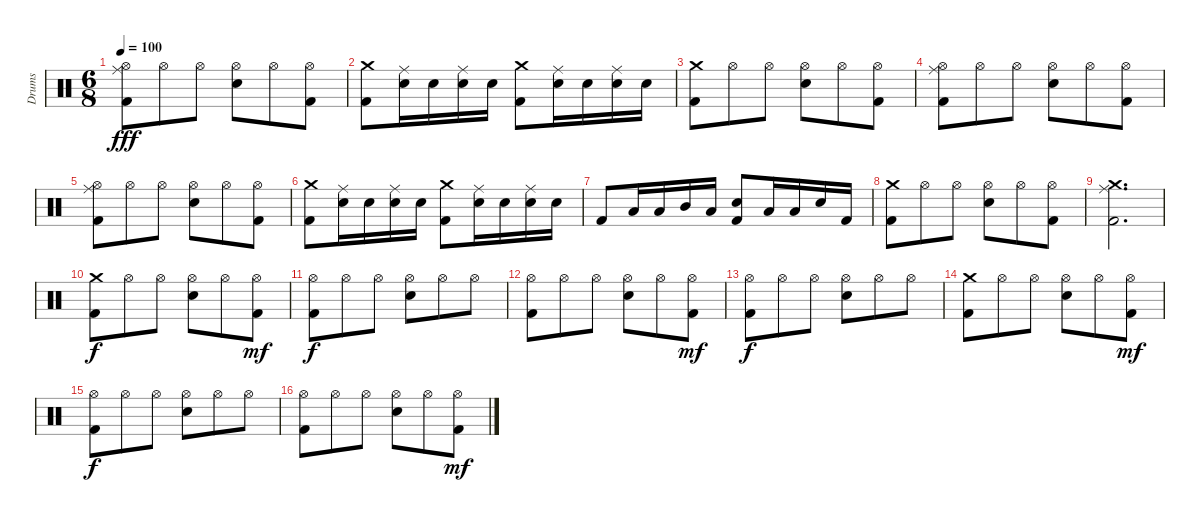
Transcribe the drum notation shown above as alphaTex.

\track ("Drums" "Drums") {instrument percussion}
\staff {score}
\articulation defaults
\ts (6 8)
\tempo 100
\clef neutral
\ks c
("Ride (middle)" "Hi-Hat (open)" "Kick (hit) 2").8{dy fff} "Hi-Hat (open)".8 "Hi-Hat (open)".8 ("Hi-Hat (open)" "Electric Snare (hit)").8 "Hi-Hat (open)".8 ("Hi-Hat (open)" "Kick (hit) 2").8 |
("Crash medium (hit)" "Kick (hit) 2").8 ("Ride (middle)" "Electric Snare (hit)").16 "Electric Snare (hit)".16 ("Ride (middle)" "Electric Snare (hit)").16 "Electric Snare (hit)".16 ("Crash medium (hit)" "Kick (hit) 2").8 ("Ride (middle)" "Electric Snare (hit)").16 "Electric Snare (hit)".16 ("Ride (middle)" "Electric Snare (hit)").16 "Electric Snare (hit)".16 |
("Crash medium (hit)" "Kick (hit) 2").8 "Hi-Hat (open)".8 "Hi-Hat (open)".8 ("Hi-Hat (open)" "Electric Snare (hit)").8 "Hi-Hat (open)".8 ("Hi-Hat (open)" "Kick (hit) 2").8 |
("Ride (middle)" "Hi-Hat (open)" "Kick (hit) 2").8 "Hi-Hat (open)".8 "Hi-Hat (open)".8 ("Hi-Hat (open)" "Electric Snare (hit)").8 "Hi-Hat (open)".8 ("Hi-Hat (open)" "Kick (hit) 2").8 |
("Ride (middle)" "Hi-Hat (open)" "Kick (hit) 2").8 "Hi-Hat (open)".8 "Hi-Hat (open)".8 ("Hi-Hat (open)" "Electric Snare (hit)").8 "Hi-Hat (open)".8 ("Hi-Hat (open)" "Kick (hit) 2").8 |
("Crash medium (hit)" "Kick (hit) 2").8 ("Ride (middle)" "Electric Snare (hit)").16 "Electric Snare (hit)".16 ("Ride (middle)" "Electric Snare (hit)").16 "Electric Snare (hit)".16 ("Crash medium (hit)" "Kick (hit) 2").8 ("Ride (middle)" "Electric Snare (hit)").16 "Electric Snare (hit)".16 ("Ride (middle)" "Electric Snare (hit)").16 "Electric Snare (hit)".16 |
"Kick (hit) 2".8 "Low Floor Tom (hit)".16 "Low Tom (hit)".16 "Mid Tom (hit)".16 "Low Tom (hit)".16 ("Electric Snare (hit)" "Kick (hit) 2").8 "Low Floor Tom (hit)".16 "Low Tom (hit)".16 "Electric Snare (hit)".16 "Kick (hit) 2".16 |
("Crash medium (hit)" "Kick (hit) 2").8 "Hi-Hat (open)".8 "Hi-Hat (open)".8 ("Hi-Hat (open)" "Electric Snare (hit)").8 "Hi-Hat (open)".8 ("Hi-Hat (open)" "Kick (hit) 2").8 |
("Crash medium (hit)" "Ride (middle)" "Kick (hit) 2").2{d} |
("Crash medium (hit)" "Kick (hit) 2").8{dy f} "Hi-Hat (open)".8 "Hi-Hat (open)".8 ("Hi-Hat (open)" "Electric Snare (hit)").8 "Hi-Hat (open)".8 ("Hi-Hat (open)" "Kick (hit) 2").8{dy mf} |
("Hi-Hat (open)" "Kick (hit) 2").8{dy f} "Hi-Hat (open)".8 "Hi-Hat (open)".8 ("Hi-Hat (open)" "Electric Snare (hit)").8 "Hi-Hat (open)".8 "Hi-Hat (open)".8 |
("Hi-Hat (open)" "Kick (hit) 2").8 "Hi-Hat (open)".8 "Hi-Hat (open)".8 ("Hi-Hat (open)" "Electric Snare (hit)").8 "Hi-Hat (open)".8 ("Hi-Hat (open)" "Kick (hit) 2").8{dy mf} |
("Hi-Hat (open)" "Kick (hit) 2").8{dy f} "Hi-Hat (open)".8 "Hi-Hat (open)".8 ("Hi-Hat (open)" "Electric Snare (hit)").8 "Hi-Hat (open)".8 "Hi-Hat (open)".8 |
("Crash medium (hit)" "Kick (hit) 2").8 "Hi-Hat (open)".8 "Hi-Hat (open)".8 ("Hi-Hat (open)" "Electric Snare (hit)").8 "Hi-Hat (open)".8 ("Hi-Hat (open)" "Kick (hit) 2").8{dy mf} |
("Hi-Hat (open)" "Kick (hit) 2").8{dy f} "Hi-Hat (open)".8 "Hi-Hat (open)".8 ("Hi-Hat (open)" "Electric Snare (hit)").8 "Hi-Hat (open)".8 "Hi-Hat (open)".8 |
("Hi-Hat (open)" "Kick (hit) 2").8 "Hi-Hat (open)".8 "Hi-Hat (open)".8 ("Hi-Hat (open)" "Electric Snare (hit)").8 "Hi-Hat (open)".8 ("Hi-Hat (open)" "Kick (hit) 2").8{dy mf}
